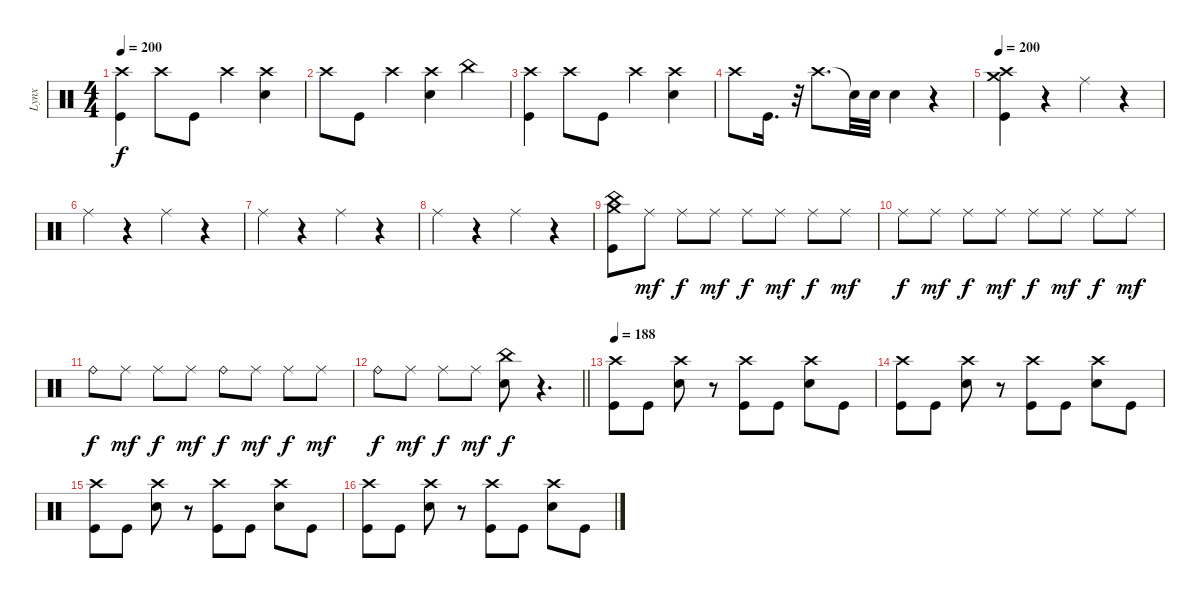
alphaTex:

\track ("Lynx" "Lynx") {instrument percussion}
\staff {score}
\articulation defaults
\ts (4 4)
\tempo 200
\clef neutral
\ks c
("Crash high (hit)" "Kick (hit)").4{dy f} "Crash high (hit)".8 "Kick (hit)".8 "Crash high (hit)".4 ("Crash high (hit)" "Electric Snare (hit)").4 |
"Crash high (hit)".8 "Kick (hit)".8 "Crash high (hit)".4 ("Crash high (hit)" "Electric Snare (hit)").4 "China (hit)".4 |
("Crash high (hit)" "Kick (hit)").4 "Crash high (hit)".8 "Kick (hit)".8 "Crash high (hit)".4 ("Crash high (hit)" "Electric Snare (hit)").4 |
"Crash high (hit)".8 "Kick (hit)".16{d} r.32 "Crash high (hit)".8{d} "Snare (hit)"{t}.32 "Electric Snare (hit)".32 "Electric Snare (hit)".4 r.4 |
\tempo 200
("Crash high (hit)" "Crash medium (hit)" "Kick (hit)").4 r.4 "Ride (middle)".4 r.4 |
"Ride (middle)".4 r.4 "Ride (middle)".4 r.4 |
"Ride (middle)".4 r.4 "Ride (middle)".4 r.4 |
"Ride (middle)".4 r.4 "Ride (middle)".4 r.4 |
("Kick (hit)" "China (hit)" "Crash medium (hit)").8 "Ride (middle)".8{dy mf} "Ride (middle)".8{dy f} "Ride (middle)".8{dy mf} "Ride (middle)".8{dy f} "Ride (middle)".8{dy mf} "Ride (middle)".8{dy f} "Ride (middle)".8{dy mf} |
"Ride (middle)".8{dy f} "Ride (middle)".8{dy mf} "Ride (middle)".8{dy f} "Ride (middle)".8{dy mf} "Ride (middle)".8{dy f} "Ride (middle)".8{dy mf} "Ride (middle)".8{dy f} "Ride (middle)".8{dy mf} |
"Ride (bell)".8{dy f} "Ride (middle)".8{dy mf} "Ride (middle)".8{dy f} "Ride (middle)".8{dy mf} "Ride (bell)".8{dy f} "Ride (middle)".8{dy mf} "Ride (middle)".8{dy f} "Ride (middle)".8{dy mf} |
\barLineRight lightlight "Ride (bell)".8{dy f} "Ride (middle)".8{dy mf} "Ride (middle)".8{dy f} "Ride (middle)".8{dy mf}
("China (hit)" "Electric Snare (hit)").8{dy f} r.4{d} |
\section ("" "")
\tempo 188
("Crash high (hit)" "Kick (hit)").8 "Kick (hit)".8 ("Crash high (hit)" "Electric Snare (hit)").8 r.8 ("Crash high (hit)" "Kick (hit)").8 "Kick (hit)".8 ("Crash high (hit)" "Electric Snare (hit)").8 "Kick (hit)".8 |
("Crash high (hit)" "Kick (hit)").8 "Kick (hit)".8 ("Crash high (hit)" "Electric Snare (hit)").8 r.8 ("Crash high (hit)" "Kick (hit)").8 "Kick (hit)".8 ("Crash high (hit)" "Electric Snare (hit)").8 "Kick (hit)".8 |
("Crash high (hit)" "Kick (hit)").8 "Kick (hit)".8 ("Crash high (hit)" "Electric Snare (hit)").8 r.8 ("Crash high (hit)" "Kick (hit)").8 "Kick (hit)".8 ("Crash high (hit)" "Electric Snare (hit)").8 "Kick (hit)".8 |
("Crash high (hit)" "Kick (hit)").8 "Kick (hit)".8 ("Crash high (hit)" "Electric Snare (hit)").8 r.8 ("Crash high (hit)" "Kick (hit)").8 "Kick (hit)".8 ("Crash high (hit)" "Electric Snare (hit)").8 "Kick (hit)".8
